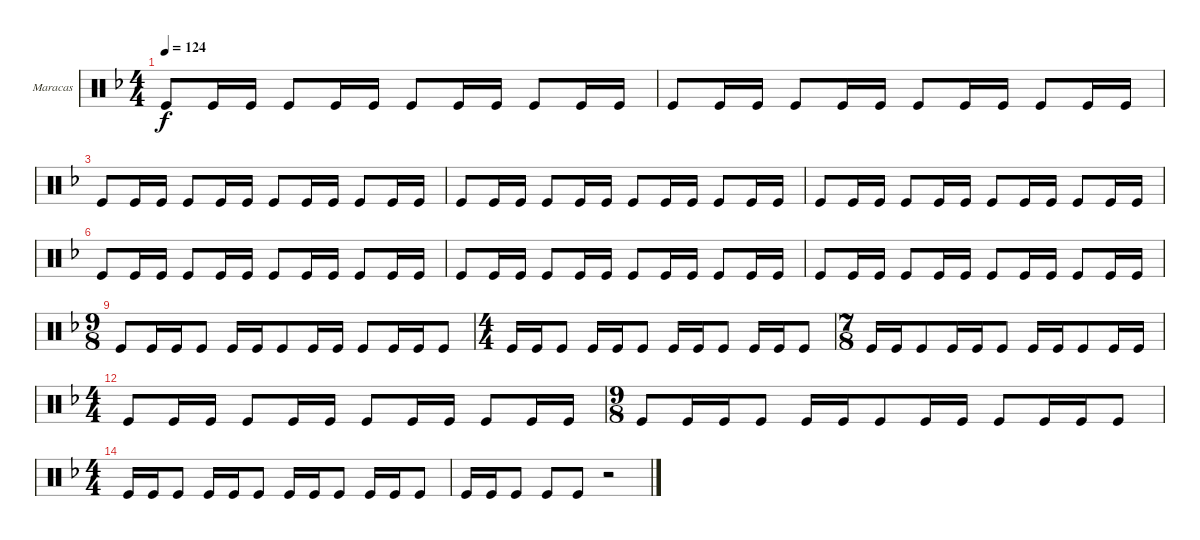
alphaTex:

\bracketExtendMode nobrackets
\firstSystemTrackNameOrientation horizontal
\otherSystemsTrackNameOrientation horizontal
\defaultBarNumberDisplay FirstOfSystem
\track ("Maracas" "Maracas") {instrument percussion}
\staff {score}
\articulation defaults
\ts (4 4)
\tempo 124
\clef neutral
\ks f "Kick (hit)".8{dy f} "Kick (hit)".16 "Kick (hit)".16 "Kick (hit)".8 "Kick (hit)".16 "Kick (hit)".16 "Kick (hit)".8 "Kick (hit)".16 "Kick (hit)".16 "Kick (hit)".8 "Kick (hit)".16 "Kick (hit)".16
|
"Kick (hit)".8 "Kick (hit)".16 "Kick (hit)".16 "Kick (hit)".8 "Kick (hit)".16 "Kick (hit)".16 "Kick (hit)".8 "Kick (hit)".16 "Kick (hit)".16 "Kick (hit)".8 "Kick (hit)".16 "Kick (hit)".16 |
"Kick (hit)".8 "Kick (hit)".16 "Kick (hit)".16 "Kick (hit)".8 "Kick (hit)".16 "Kick (hit)".16 "Kick (hit)".8 "Kick (hit)".16 "Kick (hit)".16 "Kick (hit)".8 "Kick (hit)".16 "Kick (hit)".16 |
"Kick (hit)".8 "Kick (hit)".16 "Kick (hit)".16 "Kick (hit)".8 "Kick (hit)".16 "Kick (hit)".16 "Kick (hit)".8 "Kick (hit)".16 "Kick (hit)".16 "Kick (hit)".8 "Kick (hit)".16 "Kick (hit)".16 |
"Kick (hit)".8 "Kick (hit)".16 "Kick (hit)".16 "Kick (hit)".8 "Kick (hit)".16 "Kick (hit)".16 "Kick (hit)".8 "Kick (hit)".16 "Kick (hit)".16 "Kick (hit)".8 "Kick (hit)".16 "Kick (hit)".16 |
"Kick (hit)".8 "Kick (hit)".16 "Kick (hit)".16 "Kick (hit)".8 "Kick (hit)".16 "Kick (hit)".16 "Kick (hit)".8 "Kick (hit)".16 "Kick (hit)".16 "Kick (hit)".8 "Kick (hit)".16 "Kick (hit)".16 |
"Kick (hit)".8 "Kick (hit)".16 "Kick (hit)".16 "Kick (hit)".8 "Kick (hit)".16 "Kick (hit)".16 "Kick (hit)".8 "Kick (hit)".16 "Kick (hit)".16 "Kick (hit)".8 "Kick (hit)".16 "Kick (hit)".16 |
"Kick (hit)".8 "Kick (hit)".16 "Kick (hit)".16 "Kick (hit)".8 "Kick (hit)".16 "Kick (hit)".16 "Kick (hit)".8 "Kick (hit)".16 "Kick (hit)".16 "Kick (hit)".8 "Kick (hit)".16 "Kick (hit)".16 |
\ts (9 8)
"Kick (hit)".8 "Kick (hit)".16 "Kick (hit)".16 "Kick (hit)".8 "Kick (hit)".16 "Kick (hit)".16 "Kick (hit)".8 "Kick (hit)".16 "Kick (hit)".16 "Kick (hit)".8 "Kick (hit)".16 "Kick (hit)".16 "Kick (hit)".8 |
\ts (4 4)
"Kick (hit)".16 "Kick (hit)".16 "Kick (hit)".8 "Kick (hit)".16 "Kick (hit)".16 "Kick (hit)".8 "Kick (hit)".16 "Kick (hit)".16 "Kick (hit)".8 "Kick (hit)".16 "Kick (hit)".16 "Kick (hit)".8 |
\ts (7 8)
"Kick (hit)".16 "Kick (hit)".16 "Kick (hit)".8 "Kick (hit)".16 "Kick (hit)".16 "Kick (hit)".8 "Kick (hit)".16 "Kick (hit)".16 "Kick (hit)".8 "Kick (hit)".16 "Kick (hit)".16 |
\ts (4 4)
"Kick (hit)".8 "Kick (hit)".16 "Kick (hit)".16 "Kick (hit)".8 "Kick (hit)".16 "Kick (hit)".16 "Kick (hit)".8 "Kick (hit)".16 "Kick (hit)".16 "Kick (hit)".8 "Kick (hit)".16 "Kick (hit)".16 |
\ts (9 8)
"Kick (hit)".8 "Kick (hit)".16 "Kick (hit)".16 "Kick (hit)".8 "Kick (hit)".16 "Kick (hit)".16 "Kick (hit)".8 "Kick (hit)".16 "Kick (hit)".16 "Kick (hit)".8 "Kick (hit)".16 "Kick (hit)".16 "Kick (hit)".8 |
\ts (4 4)
"Kick (hit)".16 "Kick (hit)".16 "Kick (hit)".8 "Kick (hit)".16 "Kick (hit)".16 "Kick (hit)".8 "Kick (hit)".16 "Kick (hit)".16 "Kick (hit)".8 "Kick (hit)".16 "Kick (hit)".16 "Kick (hit)".8 |
"Kick (hit)".16 "Kick (hit)".16 "Kick (hit)".8 "Kick (hit)".8 "Kick (hit)".8 r.2
